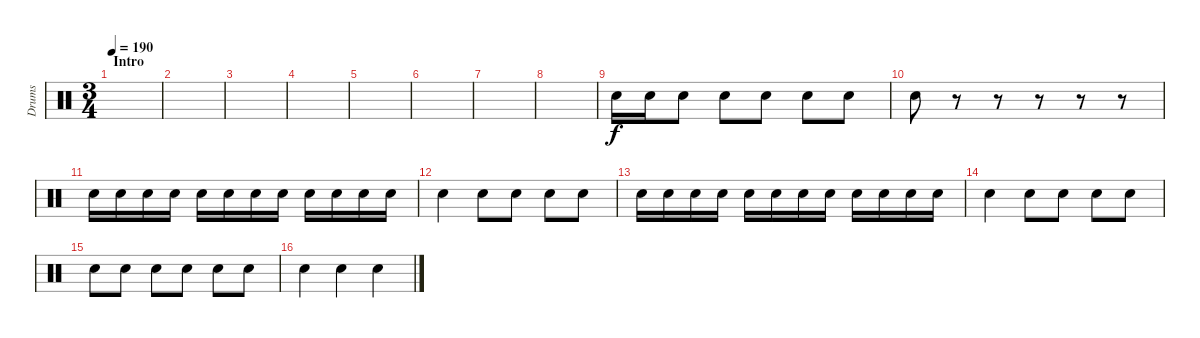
\track ("Drums" "Drums") {instrument percussion}
\staff {score}
\articulation defaults
\ts (3 4)
\section ("" "Intro")
\tempo 190
\clef neutral
\ks c
|
|
|
|
|
|
|
|
"Snare (hit) 2".16{volume 6} "Snare (hit) 2".16 "Snare (hit) 2".8 "Snare (hit) 2".8 "Snare (hit) 2".8 "Snare (hit) 2".8 "Snare (hit) 2".8 |
"Snare (hit) 2".8 r.8 r.8 r.8 r.8 r.8 |
"Snare (hit) 2".16 "Snare (hit) 2".16 "Snare (hit) 2".16 "Snare (hit) 2".16 "Snare (hit) 2".16 "Snare (hit) 2".16 "Snare (hit) 2".16 "Snare (hit) 2".16 "Snare (hit) 2".16 "Snare (hit) 2".16 "Snare (hit) 2".16 "Snare (hit) 2".16 |
"Snare (hit) 2".4 "Snare (hit) 2".8 "Snare (hit) 2".8 "Snare (hit) 2".8 "Snare (hit) 2".8 |
"Snare (hit) 2".16 "Snare (hit) 2".16 "Snare (hit) 2".16 "Snare (hit) 2".16 "Snare (hit) 2".16 "Snare (hit) 2".16 "Snare (hit) 2".16 "Snare (hit) 2".16 "Snare (hit) 2".16 "Snare (hit) 2".16 "Snare (hit) 2".16 "Snare (hit) 2".16 |
"Snare (hit) 2".4 "Snare (hit) 2".8 "Snare (hit) 2".8 "Snare (hit) 2".8 "Snare (hit) 2".8 |
"Snare (hit) 2".8 "Snare (hit) 2".8 "Snare (hit) 2".8 "Snare (hit) 2".8 "Snare (hit) 2".8 "Snare (hit) 2".8 |
"Snare (hit) 2".4 "Snare (hit) 2".4 "Snare (hit) 2".4
